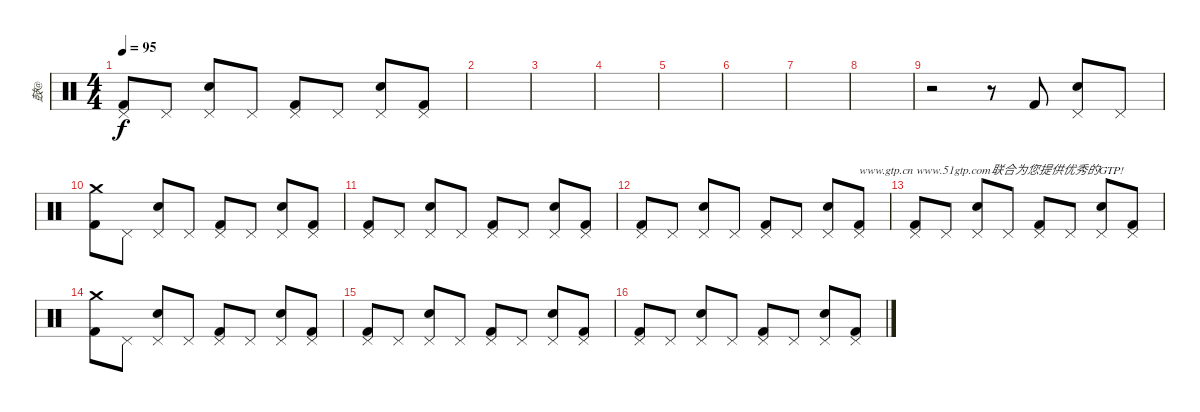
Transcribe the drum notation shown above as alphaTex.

\track ("鼓@" "鼓@") {instrument percussion}
\staff {score}
\articulation defaults
\ts (4 4)
\tempo 95
\clef neutral
\ks c
("Pedal Hi-Hat (hit)" "Kick (hit) 2").8{dy f} "Pedal Hi-Hat (hit)".8 ("Pedal Hi-Hat (hit)" "Electric Snare (hit)").8 "Pedal Hi-Hat (hit)".8 ("Pedal Hi-Hat (hit)" "Kick (hit) 2").8 "Pedal Hi-Hat (hit)".8 ("Pedal Hi-Hat (hit)" "Electric Snare (hit)").8 ("Pedal Hi-Hat (hit)" "Kick (hit) 2").8 |
|
|
|
|
|
|
|
r.2 r.8 "Kick (hit) 2".8 ("Pedal Hi-Hat (hit)" "Electric Snare (hit)").8 "Pedal Hi-Hat (hit)".8 |
("Crash medium (hit)" "Kick (hit) 2").8 "Pedal Hi-Hat (hit)".8 ("Pedal Hi-Hat (hit)" "Electric Snare (hit)").8 "Pedal Hi-Hat (hit)".8 ("Pedal Hi-Hat (hit)" "Kick (hit) 2").8 "Pedal Hi-Hat (hit)".8 ("Pedal Hi-Hat (hit)" "Electric Snare (hit)").8 ("Pedal Hi-Hat (hit)" "Kick (hit) 2").8 |
("Pedal Hi-Hat (hit)" "Kick (hit) 2").8 "Pedal Hi-Hat (hit)".8 ("Pedal Hi-Hat (hit)" "Electric Snare (hit)").8 "Pedal Hi-Hat (hit)".8 ("Pedal Hi-Hat (hit)" "Kick (hit) 2").8 "Pedal Hi-Hat (hit)".8 ("Pedal Hi-Hat (hit)" "Electric Snare (hit)").8 ("Pedal Hi-Hat (hit)" "Kick (hit) 2").8 |
("Pedal Hi-Hat (hit)" "Kick (hit) 2").8 "Pedal Hi-Hat (hit)".8 ("Pedal Hi-Hat (hit)" "Electric Snare (hit)").8 "Pedal Hi-Hat (hit)".8 ("Pedal Hi-Hat (hit)" "Kick (hit) 2").8 "Pedal Hi-Hat (hit)".8 ("Pedal Hi-Hat (hit)" "Electric Snare (hit)").8 ("Pedal Hi-Hat (hit)" "Kick (hit) 2").8{txt "www.gtp.cn www.51gtp.com联合为您提供优秀的GTP!"} |
("Pedal Hi-Hat (hit)" "Kick (hit) 2").8 "Pedal Hi-Hat (hit)".8 ("Pedal Hi-Hat (hit)" "Electric Snare (hit)").8 "Pedal Hi-Hat (hit)".8 ("Pedal Hi-Hat (hit)" "Kick (hit) 2").8 "Pedal Hi-Hat (hit)".8 ("Pedal Hi-Hat (hit)" "Electric Snare (hit)").8 ("Pedal Hi-Hat (hit)" "Kick (hit) 2").8 |
("Crash medium (hit)" "Kick (hit) 2").8 "Pedal Hi-Hat (hit)".8 ("Pedal Hi-Hat (hit)" "Electric Snare (hit)").8 "Pedal Hi-Hat (hit)".8 ("Pedal Hi-Hat (hit)" "Kick (hit) 2").8 "Pedal Hi-Hat (hit)".8 ("Pedal Hi-Hat (hit)" "Electric Snare (hit)").8 ("Pedal Hi-Hat (hit)" "Kick (hit) 2").8 |
("Pedal Hi-Hat (hit)" "Kick (hit) 2").8 "Pedal Hi-Hat (hit)".8 ("Pedal Hi-Hat (hit)" "Electric Snare (hit)").8 "Pedal Hi-Hat (hit)".8 ("Pedal Hi-Hat (hit)" "Kick (hit) 2").8 "Pedal Hi-Hat (hit)".8 ("Pedal Hi-Hat (hit)" "Electric Snare (hit)").8 ("Pedal Hi-Hat (hit)" "Kick (hit) 2").8 |
("Pedal Hi-Hat (hit)" "Kick (hit) 2").8 "Pedal Hi-Hat (hit)".8 ("Pedal Hi-Hat (hit)" "Electric Snare (hit)").8 "Pedal Hi-Hat (hit)".8 ("Pedal Hi-Hat (hit)" "Kick (hit) 2").8 "Pedal Hi-Hat (hit)".8 ("Pedal Hi-Hat (hit)" "Electric Snare (hit)").8 ("Pedal Hi-Hat (hit)" "Kick (hit) 2").8
